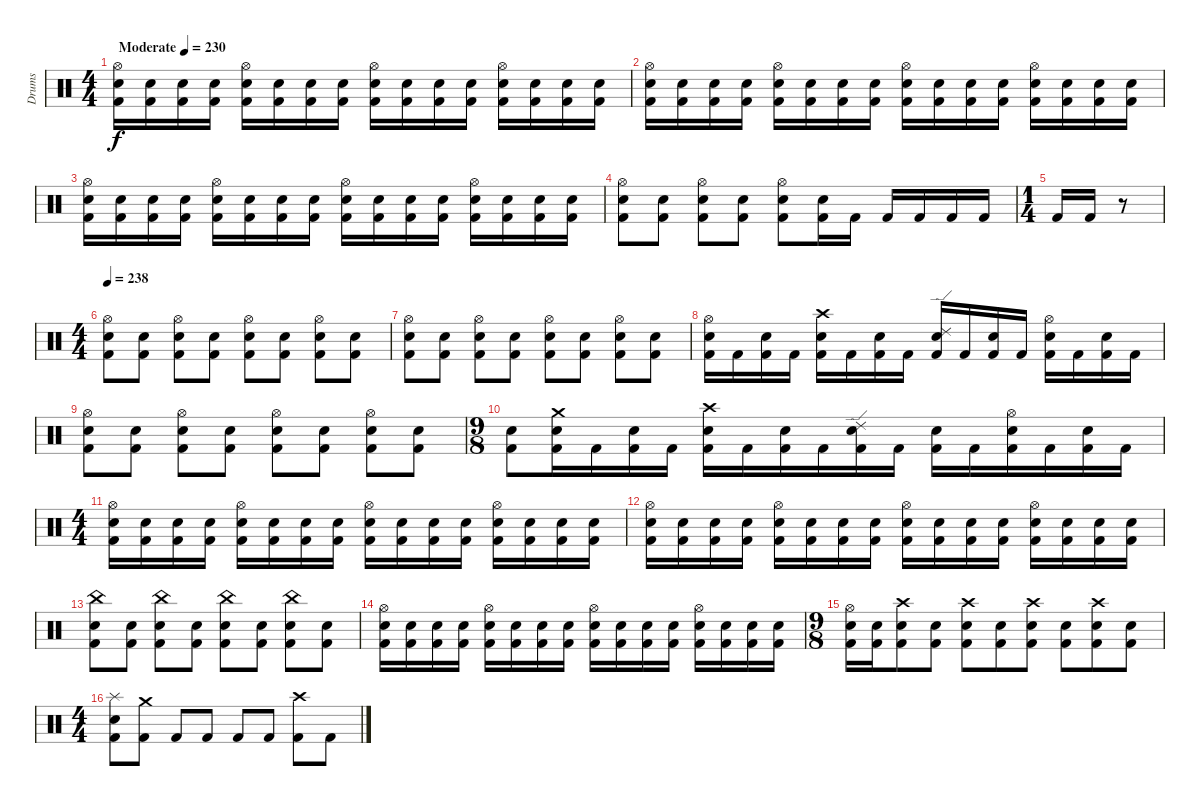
\track ("Drums" "Drums") {instrument percussion}
\staff {score}
\articulation defaults
\ts (4 4)
\tempo (230 "Moderate")
\clef neutral
\ks c
("Kick (hit) 2" "Electric Snare (hit)" "Hi-Hat (open)").16{dy f} ("Kick (hit) 2" "Electric Snare (hit)").16 ("Kick (hit) 2" "Electric Snare (hit)").16 ("Kick (hit) 2" "Electric Snare (hit)").16 ("Kick (hit) 2" "Electric Snare (hit)" "Hi-Hat (open)").16 ("Kick (hit) 2" "Electric Snare (hit)").16 ("Kick (hit) 2" "Electric Snare (hit)").16 ("Kick (hit) 2" "Electric Snare (hit)").16 ("Kick (hit) 2" "Electric Snare (hit)" "Hi-Hat (open)").16 ("Kick (hit) 2" "Electric Snare (hit)").16 ("Kick (hit) 2" "Electric Snare (hit)").16 ("Kick (hit) 2" "Electric Snare (hit)").16 ("Kick (hit) 2" "Electric Snare (hit)" "Hi-Hat (open)").16 ("Kick (hit) 2" "Electric Snare (hit)").16 ("Kick (hit) 2" "Electric Snare (hit)").16 ("Kick (hit) 2" "Electric Snare (hit)").16 |
("Kick (hit) 2" "Electric Snare (hit)" "Hi-Hat (open)").16 ("Kick (hit) 2" "Electric Snare (hit)").16 ("Kick (hit) 2" "Electric Snare (hit)").16 ("Kick (hit) 2" "Electric Snare (hit)").16 ("Kick (hit) 2" "Electric Snare (hit)" "Hi-Hat (open)").16 ("Kick (hit) 2" "Electric Snare (hit)").16 ("Kick (hit) 2" "Electric Snare (hit)").16 ("Kick (hit) 2" "Electric Snare (hit)").16 ("Kick (hit) 2" "Electric Snare (hit)" "Hi-Hat (open)").16 ("Kick (hit) 2" "Electric Snare (hit)").16 ("Kick (hit) 2" "Electric Snare (hit)").16 ("Kick (hit) 2" "Electric Snare (hit)").16 ("Kick (hit) 2" "Electric Snare (hit)" "Hi-Hat (open)").16 ("Kick (hit) 2" "Electric Snare (hit)").16 ("Kick (hit) 2" "Electric Snare (hit)").16 ("Kick (hit) 2" "Electric Snare (hit)").16 |
("Kick (hit) 2" "Electric Snare (hit)" "Hi-Hat (open)").16 ("Kick (hit) 2" "Electric Snare (hit)").16 ("Kick (hit) 2" "Electric Snare (hit)").16 ("Kick (hit) 2" "Electric Snare (hit)").16 ("Kick (hit) 2" "Electric Snare (hit)" "Hi-Hat (open)").16 ("Kick (hit) 2" "Electric Snare (hit)").16 ("Kick (hit) 2" "Electric Snare (hit)").16 ("Kick (hit) 2" "Electric Snare (hit)").16 ("Kick (hit) 2" "Electric Snare (hit)" "Hi-Hat (open)").16 ("Kick (hit) 2" "Electric Snare (hit)").16 ("Kick (hit) 2" "Electric Snare (hit)").16 ("Kick (hit) 2" "Electric Snare (hit)").16 ("Kick (hit) 2" "Electric Snare (hit)" "Hi-Hat (open)").16 ("Kick (hit) 2" "Electric Snare (hit)").16 ("Kick (hit) 2" "Electric Snare (hit)").16 ("Kick (hit) 2" "Electric Snare (hit)").16 |
("Kick (hit) 2" "Electric Snare (hit)" "Hi-Hat (open)").8 ("Kick (hit) 2" "Electric Snare (hit)").8 ("Kick (hit) 2" "Electric Snare (hit)" "Hi-Hat (open)").8 ("Kick (hit) 2" "Electric Snare (hit)").8 ("Kick (hit) 2" "Electric Snare (hit)" "Hi-Hat (open)").8 ("Kick (hit) 2" "Electric Snare (hit)").16 "Kick (hit) 2".16 "Kick (hit) 2".16 "Kick (hit) 2".16 "Kick (hit) 2".16 "Kick (hit) 2".16 |
\ts (1 4)
"Kick (hit) 2".16 "Kick (hit) 2".16 r.8 |
\ts (4 4)
\tempo 238
("Kick (hit) 2" "Electric Snare (hit)" "Hi-Hat (open)").8 ("Kick (hit) 2" "Electric Snare (hit)").8 ("Kick (hit) 2" "Electric Snare (hit)" "Hi-Hat (open)").8 ("Kick (hit) 2" "Electric Snare (hit)").8 ("Kick (hit) 2" "Electric Snare (hit)" "Hi-Hat (open)").8 ("Kick (hit) 2" "Electric Snare (hit)").8 ("Kick (hit) 2" "Electric Snare (hit)" "Hi-Hat (open)").8 ("Kick (hit) 2" "Electric Snare (hit)").8 |
("Kick (hit) 2" "Electric Snare (hit)" "Hi-Hat (open)").8 ("Kick (hit) 2" "Electric Snare (hit)").8 ("Kick (hit) 2" "Electric Snare (hit)" "Hi-Hat (open)").8 ("Kick (hit) 2" "Electric Snare (hit)").8 ("Kick (hit) 2" "Electric Snare (hit)" "Hi-Hat (open)").8 ("Kick (hit) 2" "Electric Snare (hit)").8 ("Kick (hit) 2" "Electric Snare (hit)" "Hi-Hat (open)").8 ("Kick (hit) 2" "Electric Snare (hit)").8 |
("Kick (hit) 2" "Electric Snare (hit)" "Hi-Hat (open)").16 "Kick (hit) 2".16 ("Kick (hit) 2" "Electric Snare (hit)").16 "Kick (hit) 2".16 ("Kick (hit) 2" "Electric Snare (hit)" "Crash high (hit)").16 "Kick (hit) 2".16 ("Kick (hit) 2" "Electric Snare (hit)").16 "Kick (hit) 2".16 ("Kick (hit) 2" "Electric Snare (hit)" "Ride (edge) 2").16 "Kick (hit) 2".16 ("Kick (hit) 2" "Electric Snare (hit)").16 "Kick (hit) 2".16 ("Kick (hit) 2" "Electric Snare (hit)" "Hi-Hat (open)").16 "Kick (hit) 2".16 ("Kick (hit) 2" "Electric Snare (hit)").16 "Kick (hit) 2".16 |
("Kick (hit) 2" "Electric Snare (hit)" "Hi-Hat (open)").8 ("Kick (hit) 2" "Electric Snare (hit)").8 ("Kick (hit) 2" "Electric Snare (hit)" "Hi-Hat (open)").8 ("Kick (hit) 2" "Electric Snare (hit)").8 ("Kick (hit) 2" "Electric Snare (hit)" "Hi-Hat (open)").8 ("Kick (hit) 2" "Electric Snare (hit)").8 ("Kick (hit) 2" "Electric Snare (hit)" "Hi-Hat (open)").8 ("Kick (hit) 2" "Electric Snare (hit)").8 |
\ts (9 8)
("Kick (hit) 2" "Electric Snare (hit)").8 ("Kick (hit) 2" "Electric Snare (hit)" "Crash medium (hit)").16 "Kick (hit) 2".16 ("Kick (hit) 2" "Electric Snare (hit)").16 "Kick (hit) 2".16 ("Kick (hit) 2" "Electric Snare (hit)" "Crash high (hit)").16 "Kick (hit) 2".16 ("Kick (hit) 2" "Electric Snare (hit)").16 "Kick (hit) 2".16 ("Kick (hit) 2" "Electric Snare (hit)" "Ride (edge) 2").16 "Kick (hit) 2".16 ("Kick (hit) 2" "Electric Snare (hit)").16 "Kick (hit) 2".16 ("Kick (hit) 2" "Electric Snare (hit)" "Hi-Hat (open)").16 "Kick (hit) 2".16 ("Kick (hit) 2" "Electric Snare (hit)").16 "Kick (hit) 2".16 |
\ts (4 4)
("Kick (hit) 2" "Electric Snare (hit)" "Hi-Hat (open)").16 ("Kick (hit) 2" "Electric Snare (hit)").16 ("Kick (hit) 2" "Electric Snare (hit)").16 ("Kick (hit) 2" "Electric Snare (hit)").16 ("Kick (hit) 2" "Electric Snare (hit)" "Hi-Hat (open)").16 ("Kick (hit) 2" "Electric Snare (hit)").16 ("Kick (hit) 2" "Electric Snare (hit)").16 ("Kick (hit) 2" "Electric Snare (hit)").16 ("Kick (hit) 2" "Electric Snare (hit)" "Hi-Hat (open)").16 ("Kick (hit) 2" "Electric Snare (hit)").16 ("Kick (hit) 2" "Electric Snare (hit)").16 ("Kick (hit) 2" "Electric Snare (hit)").16 ("Kick (hit) 2" "Electric Snare (hit)" "Hi-Hat (open)").16 ("Kick (hit) 2" "Electric Snare (hit)").16 ("Kick (hit) 2" "Electric Snare (hit)").16 ("Kick (hit) 2" "Electric Snare (hit)").16 |
("Kick (hit) 2" "Electric Snare (hit)" "Hi-Hat (open)").16 ("Kick (hit) 2" "Electric Snare (hit)").16 ("Kick (hit) 2" "Electric Snare (hit)").16 ("Kick (hit) 2" "Electric Snare (hit)").16 ("Kick (hit) 2" "Electric Snare (hit)" "Hi-Hat (open)").16 ("Kick (hit) 2" "Electric Snare (hit)").16 ("Kick (hit) 2" "Electric Snare (hit)").16 ("Kick (hit) 2" "Electric Snare (hit)").16 ("Kick (hit) 2" "Electric Snare (hit)" "Hi-Hat (open)").16 ("Kick (hit) 2" "Electric Snare (hit)").16 ("Kick (hit) 2" "Electric Snare (hit)").16 ("Kick (hit) 2" "Electric Snare (hit)").16 ("Kick (hit) 2" "Electric Snare (hit)" "Hi-Hat (open)").16 ("Kick (hit) 2" "Electric Snare (hit)").16 ("Kick (hit) 2" "Electric Snare (hit)").16 ("Kick (hit) 2" "Electric Snare (hit)").16 |
("Kick (hit) 2" "Electric Snare (hit)" "China (hit)").8 ("Kick (hit) 2" "Electric Snare (hit)").8 ("Kick (hit) 2" "Electric Snare (hit)" "China (hit)").8 ("Kick (hit) 2" "Electric Snare (hit)").8 ("Kick (hit) 2" "Electric Snare (hit)" "China (hit)").8 ("Kick (hit) 2" "Electric Snare (hit)").8 ("Kick (hit) 2" "Electric Snare (hit)" "China (hit)").8 ("Kick (hit) 2" "Electric Snare (hit)").8 |
("Kick (hit) 2" "Electric Snare (hit)" "Hi-Hat (open)").16 ("Kick (hit) 2" "Electric Snare (hit)").16 ("Kick (hit) 2" "Electric Snare (hit)").16 ("Kick (hit) 2" "Electric Snare (hit)").16 ("Kick (hit) 2" "Electric Snare (hit)" "Hi-Hat (open)").16 ("Kick (hit) 2" "Electric Snare (hit)").16 ("Kick (hit) 2" "Electric Snare (hit)").16 ("Kick (hit) 2" "Electric Snare (hit)").16 ("Kick (hit) 2" "Electric Snare (hit)" "Hi-Hat (open)").16 ("Kick (hit) 2" "Electric Snare (hit)").16 ("Kick (hit) 2" "Electric Snare (hit)").16 ("Kick (hit) 2" "Electric Snare (hit)").16 ("Kick (hit) 2" "Electric Snare (hit)" "Hi-Hat (open)").16 ("Kick (hit) 2" "Electric Snare (hit)").16 ("Kick (hit) 2" "Electric Snare (hit)").16 ("Kick (hit) 2" "Electric Snare (hit)").16 |
\ts (9 8)
("Kick (hit) 2" "Electric Snare (hit)" "Hi-Hat (open)").16 ("Kick (hit) 2" "Electric Snare (hit)").16 ("Kick (hit) 2" "Electric Snare (hit)" "Crash high (hit)").8 ("Kick (hit) 2" "Electric Snare (hit)").8 ("Kick (hit) 2" "Electric Snare (hit)" "Crash high (hit)").8 ("Kick (hit) 2" "Electric Snare (hit)").8 ("Kick (hit) 2" "Electric Snare (hit)" "Crash high (hit)").8 ("Kick (hit) 2" "Electric Snare (hit)").8 ("Kick (hit) 2" "Electric Snare (hit)" "Crash high (hit)").8 ("Kick (hit) 2" "Electric Snare (hit)").8 |
\ts (4 4)
("Kick (hit) 2" "Electric Snare (hit)" "Splash (hit)").8 ("Kick (hit) 2" "Crash medium (hit)").8 "Kick (hit) 2".8 "Kick (hit) 2".8 "Kick (hit) 2".8 "Kick (hit) 2".8 ("Kick (hit) 2" "Crash high (hit)").8 "Kick (hit) 2".8
